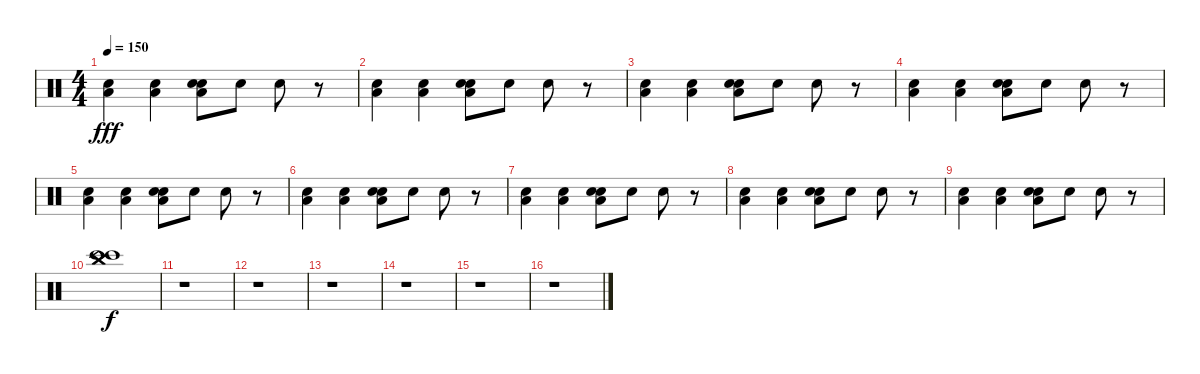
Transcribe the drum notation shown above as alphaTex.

\track "" {instrument percussion}
\staff {score}
\articulation defaults
\ts (4 4)
\tempo 150
\clef neutral
\ks c
("Low Floor Tom (hit)" "Electric Snare (hit)").4{dy fff} ("Low Floor Tom (hit)" "Electric Snare (hit)").4 ("Electric Snare (hit)" "Low Floor Tom (hit)" "Electric Snare (hit)").8 "Electric Snare (hit)".8 "Electric Snare (hit)".8 r.8 |
("Low Floor Tom (hit)" "Electric Snare (hit)").4 ("Low Floor Tom (hit)" "Electric Snare (hit)").4 ("Electric Snare (hit)" "Low Floor Tom (hit)" "Electric Snare (hit)").8 "Electric Snare (hit)".8 "Electric Snare (hit)".8 r.8 |
("Low Floor Tom (hit)" "Electric Snare (hit)").4 ("Low Floor Tom (hit)" "Electric Snare (hit)").4 ("Electric Snare (hit)" "Low Floor Tom (hit)" "Electric Snare (hit)").8 "Electric Snare (hit)".8 "Electric Snare (hit)".8 r.8 |
("Low Floor Tom (hit)" "Electric Snare (hit)").4 ("Low Floor Tom (hit)" "Electric Snare (hit)").4 ("Electric Snare (hit)" "Low Floor Tom (hit)" "Electric Snare (hit)").8 "Electric Snare (hit)".8 "Electric Snare (hit)".8 r.8 |
("Low Floor Tom (hit)" "Electric Snare (hit)").4 ("Low Floor Tom (hit)" "Electric Snare (hit)").4 ("Electric Snare (hit)" "Low Floor Tom (hit)" "Electric Snare (hit)").8 "Electric Snare (hit)".8 "Electric Snare (hit)".8 r.8 |
("Low Floor Tom (hit)" "Electric Snare (hit)").4 ("Low Floor Tom (hit)" "Electric Snare (hit)").4 ("Electric Snare (hit)" "Low Floor Tom (hit)" "Electric Snare (hit)").8 "Electric Snare (hit)".8 "Electric Snare (hit)".8 r.8 |
("Low Floor Tom (hit)" "Electric Snare (hit)").4 ("Low Floor Tom (hit)" "Electric Snare (hit)").4 ("Electric Snare (hit)" "Low Floor Tom (hit)" "Electric Snare (hit)").8 "Electric Snare (hit)".8 "Electric Snare (hit)".8 r.8 |
("Low Floor Tom (hit)" "Electric Snare (hit)").4 ("Low Floor Tom (hit)" "Electric Snare (hit)").4 ("Electric Snare (hit)" "Low Floor Tom (hit)" "Electric Snare (hit)").8 "Electric Snare (hit)".8 "Electric Snare (hit)".8 r.8 |
("Low Floor Tom (hit)" "Electric Snare (hit)").4 ("Low Floor Tom (hit)" "Electric Snare (hit)").4 ("Electric Snare (hit)" "Low Floor Tom (hit)" "Electric Snare (hit)").8 "Electric Snare (hit)".8 "Electric Snare (hit)".8 r.8 |
("Bongo High (hit)" "Bongo High (hit)" "China (hit)" "China (hit)").1{dy f} |
r.1 |
r.1 |
r.1 |
r.1 |
r.1 |
r.1
